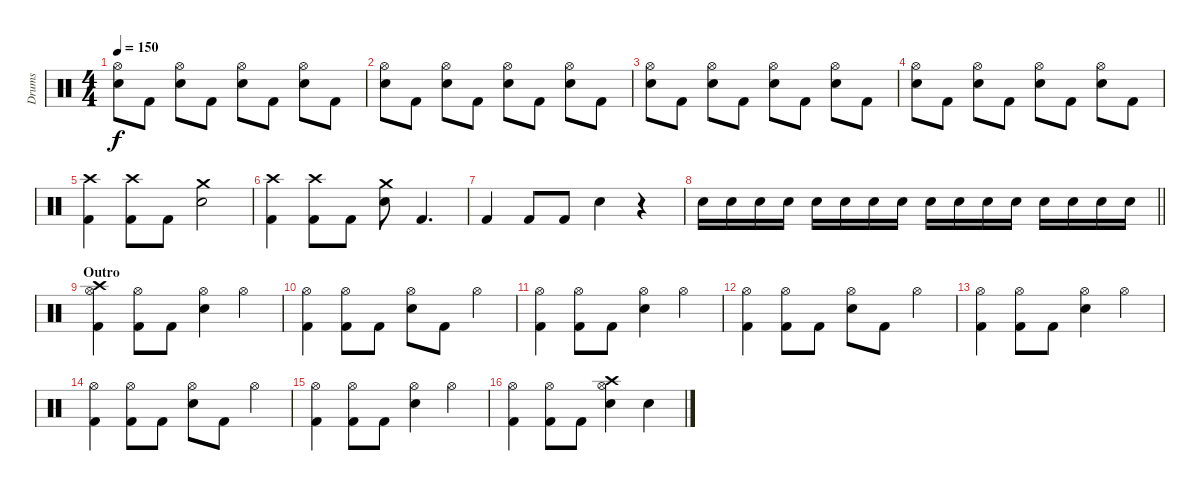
\track ("Drums" "Drums") {instrument percussion}
\staff {score}
\articulation defaults
\ts (4 4)
\tempo 150
\clef neutral
\ks c
("Electric Snare (hit)" "Hi-Hat (open)").8{dy f} "Kick (hit) 2".8 ("Electric Snare (hit)" "Hi-Hat (open)").8 "Kick (hit) 2".8 ("Electric Snare (hit)" "Hi-Hat (open)").8 "Kick (hit) 2".8 ("Electric Snare (hit)" "Hi-Hat (open)").8 "Kick (hit) 2".8 |
("Electric Snare (hit)" "Hi-Hat (open)").8 "Kick (hit) 2".8 ("Electric Snare (hit)" "Hi-Hat (open)").8 "Kick (hit) 2".8 ("Electric Snare (hit)" "Hi-Hat (open)").8 "Kick (hit) 2".8 ("Electric Snare (hit)" "Hi-Hat (open)").8 "Kick (hit) 2".8 |
("Electric Snare (hit)" "Hi-Hat (open)").8 "Kick (hit) 2".8 ("Electric Snare (hit)" "Hi-Hat (open)").8 "Kick (hit) 2".8 ("Electric Snare (hit)" "Hi-Hat (open)").8 "Kick (hit) 2".8 ("Electric Snare (hit)" "Hi-Hat (open)").8 "Kick (hit) 2".8 |
("Electric Snare (hit)" "Hi-Hat (open)").8 "Kick (hit) 2".8 ("Electric Snare (hit)" "Hi-Hat (open)").8 "Kick (hit) 2".8 ("Electric Snare (hit)" "Hi-Hat (open)").8 "Kick (hit) 2".8 ("Electric Snare (hit)" "Hi-Hat (open)").8 "Kick (hit) 2".8 |
("Kick (hit) 2" "Crash high (hit)").4 ("Kick (hit) 2" "Crash high (hit)").8 "Kick (hit) 2".8 ("Electric Snare (hit)" "Crash medium (hit)").2 |
("Kick (hit) 2" "Crash high (hit)").4 ("Kick (hit) 2" "Crash high (hit)").8 "Kick (hit) 2".8 ("Electric Snare (hit)" "Crash medium (hit)").8 "Kick (hit) 2".4{d} |
"Kick (hit) 2".4 "Kick (hit) 2".8 "Kick (hit) 2".8 "Electric Snare (hit)".4 r.4{volume 4} |
\barLineRight lightlight "Electric Snare (hit)".16{volume 12} "Electric Snare (hit)".16 "Electric Snare (hit)".16 "Electric Snare (hit)".16 "Electric Snare (hit)".16 "Electric Snare (hit)".16 "Electric Snare (hit)".16 "Electric Snare (hit)".16 "Electric Snare (hit)".16 "Electric Snare (hit)".16 "Electric Snare (hit)".16 "Electric Snare (hit)".16 "Electric Snare (hit)".16 "Electric Snare (hit)".16 "Electric Snare (hit)".16 "Electric Snare (hit)".16
|
\section ("" "Outro")
("Kick (hit) 2" "Crash high (hit)" "Hi-Hat (open)").4 ("Kick (hit) 2" "Hi-Hat (open)").8 "Kick (hit) 2".8 ("Electric Snare (hit)" "Hi-Hat (open)").4 "Hi-Hat (open)".4 |
("Kick (hit) 2" "Hi-Hat (open)").4 ("Kick (hit) 2" "Hi-Hat (open)").8 "Kick (hit) 2".8 ("Electric Snare (hit)" "Hi-Hat (open)").8 "Kick (hit) 2".8 "Hi-Hat (open)".4 |
("Kick (hit) 2" "Hi-Hat (open)").4 ("Kick (hit) 2" "Hi-Hat (open)").8 "Kick (hit) 2".8 ("Electric Snare (hit)" "Hi-Hat (open)").4 "Hi-Hat (open)".4 |
("Kick (hit) 2" "Hi-Hat (open)").4 ("Kick (hit) 2" "Hi-Hat (open)").8 "Kick (hit) 2".8 ("Electric Snare (hit)" "Hi-Hat (open)").8 "Kick (hit) 2".8 "Hi-Hat (open)".4 |
("Kick (hit) 2" "Hi-Hat (open)").4 ("Kick (hit) 2" "Hi-Hat (open)").8 "Kick (hit) 2".8 ("Electric Snare (hit)" "Hi-Hat (open)").4 "Hi-Hat (open)".4 |
("Kick (hit) 2" "Hi-Hat (open)").4 ("Kick (hit) 2" "Hi-Hat (open)").8 "Kick (hit) 2".8 ("Electric Snare (hit)" "Hi-Hat (open)").8 "Kick (hit) 2".8 "Hi-Hat (open)".4 |
("Kick (hit) 2" "Hi-Hat (open)").4 ("Kick (hit) 2" "Hi-Hat (open)").8 "Kick (hit) 2".8 ("Electric Snare (hit)" "Hi-Hat (open)").4 "Hi-Hat (open)".4 |
("Kick (hit) 2" "Hi-Hat (open)").4 ("Kick (hit) 2" "Hi-Hat (open)").8 "Kick (hit) 2".8 ("Electric Snare (hit)" "Crash high (hit)" "Hi-Hat (open)").4 "Electric Snare (hit)".4
